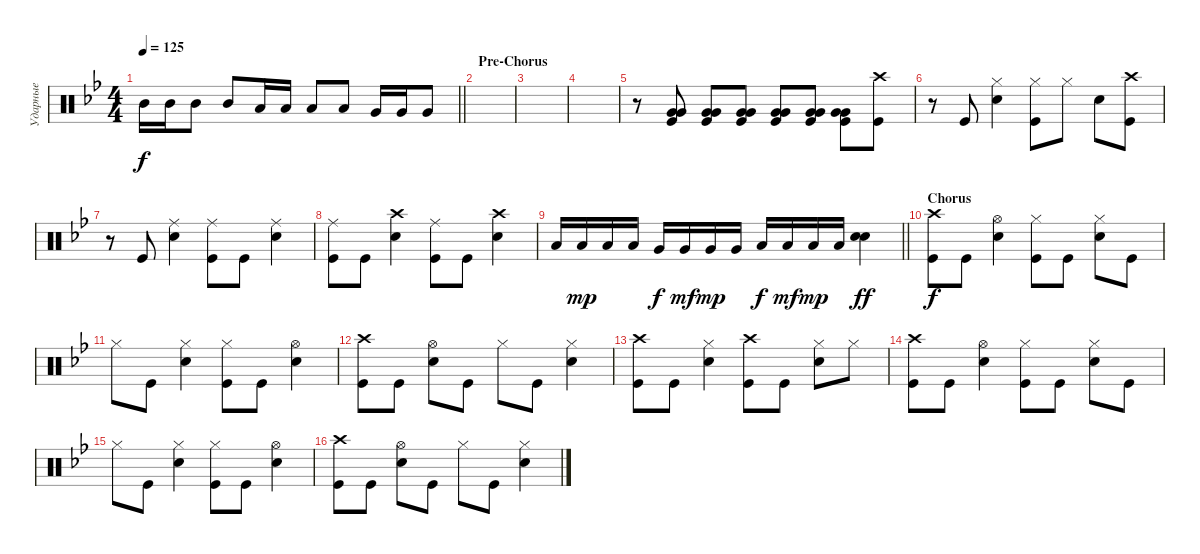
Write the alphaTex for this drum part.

\track ("Ударные" "Ударные") {instrument percussion}
\staff {score}
\articulation defaults
\ts (4 4)
\tempo 125
\clef neutral
\barLineRight lightlight
\ks gminor "Mid Tom (hit)".16{dy f} "Mid Tom (hit)".16 "Mid Tom (hit)".8 "Mid Tom (hit)".8 "Low Tom (hit)".16 "Low Tom (hit)".16 "Low Tom (hit)".8 "Low Tom (hit)".8 "Very Low Tom (hit)".16 "Very Low Tom (hit)".16 "Very Low Tom (hit)".8
|
\section ("" "Pre-Chorus")
|
|
|
r.8 ("Kick (hit)" "Very Low Tom (hit)" "Very Low Tom (hit)").8{bd 60} ("Kick (hit)" "Very Low Tom (hit)" "Very Low Tom (hit)").8{bd 60} ("Kick (hit)" "Very Low Tom (hit)" "Very Low Tom (hit)").8{bd 60} ("Kick (hit)" "Very Low Tom (hit)" "Very Low Tom (hit)").8{bd 60} ("Kick (hit)" "Very Low Tom (hit)" "Very Low Tom (hit)").8{bd 60} ("Kick (hit)" "Very Low Tom (hit)" "Very Low Tom (hit)").8{bd 60} ("Kick (hit)" "Crash high (hit)").8 |
r.8 "Kick (hit)".8 ("Hi-Hat (closed)" "Snare (hit) 2").4 ("Hi-Hat (closed)" "Kick (hit)").8 "Hi-Hat (closed)".8 "Snare (hit) 2".8 ("Kick (hit)" "Crash high (hit)").8 |
r.8 "Kick (hit)".8 ("Ride (middle)" "Snare (hit) 2").4 ("Ride (middle)" "Kick (hit)").8 "Kick (hit)".8 ("Ride (middle)" "Snare (hit) 2").4 |
("Kick (hit)" "Ride (middle)").8 "Kick (hit)".8 ("Snare (hit) 2" "Crash high (hit)").4 ("Kick (hit)" "Ride (middle)").8 "Kick (hit)".8 ("Snare (hit) 2" "Crash high (hit)").4 |
\barLineRight lightlight "Low Tom (hit)".16 "Low Tom (hit)".16{dy mp} "Low Tom (hit)".16 "Low Tom (hit)".16 "Very Low Tom (hit)".16{dy f} "Very Low Tom (hit)".16{dy mf} "Very Low Tom (hit)".16{dy mp} "Very Low Tom (hit)".16 "Low Floor Tom (hit)".16{dy f} "Low Floor Tom (hit)".16{dy mf} "Low Floor Tom (hit)".16{dy mp} "Low Floor Tom (hit)".16
("Snare (hit) 2" "Snare (hit) 2").4{bd 240 dy ff} |
\section ("" "Chorus")
("Kick (hit)" "Crash high (hit)").8{dy f} "Kick (hit)".8 ("Snare (hit) 2" "Hi-Hat (open)").4 ("Kick (hit)" "Hi-Hat (closed)").8 "Kick (hit)".8 ("Snare (hit) 2" "Hi-Hat (closed)").8 "Kick (hit)".8 |
"Hi-Hat (closed)".8 "Kick (hit)".8 ("Snare (hit) 2" "Hi-Hat (closed)").4 ("Kick (hit)" "Hi-Hat (closed)").8 "Kick (hit)".8 ("Snare (hit) 2" "Hi-Hat (open)").4 |
("Kick (hit)" "Crash high (hit)").8 "Kick (hit)".8 ("Snare (hit) 2" "Hi-Hat (open)").8 "Kick (hit)".8 "Hi-Hat (closed)".8 "Kick (hit)".8 ("Snare (hit) 2" "Hi-Hat (closed)").4 |
("Kick (hit)" "Crash high (hit)").8 "Kick (hit)".8 ("Snare (hit) 2" "Hi-Hat (closed)").4 ("Kick (hit)" "Crash high (hit)").8 "Kick (hit)".8 ("Snare (hit) 2" "Hi-Hat (closed)").8 "Hi-Hat (closed)".8 |
("Kick (hit)" "Crash high (hit)").8 "Kick (hit)".8 ("Snare (hit) 2" "Hi-Hat (open)").4 ("Kick (hit)" "Hi-Hat (closed)").8 "Kick (hit)".8 ("Snare (hit) 2" "Hi-Hat (closed)").8 "Kick (hit)".8 |
"Hi-Hat (closed)".8 "Kick (hit)".8 ("Snare (hit) 2" "Hi-Hat (closed)").4 ("Kick (hit)" "Hi-Hat (closed)").8 "Kick (hit)".8 ("Snare (hit) 2" "Hi-Hat (open)").4 |
("Kick (hit)" "Crash high (hit)").8 "Kick (hit)".8 ("Snare (hit) 2" "Hi-Hat (open)").8 "Kick (hit)".8 "Hi-Hat (closed)".8 "Kick (hit)".8 ("Snare (hit) 2" "Hi-Hat (closed)").4
